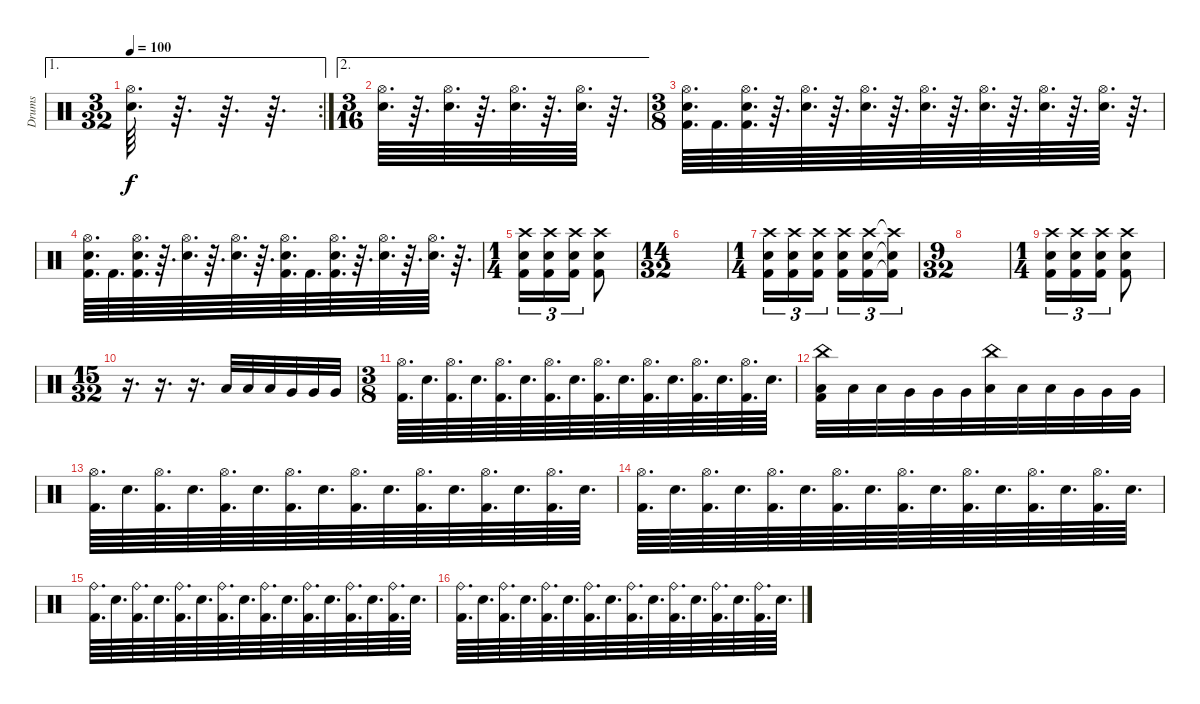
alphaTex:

\track ("Drums" "Drums") {instrument percussion}
\staff {score}
\articulation defaults
\ae 1
\rc 2
\ts (3 32)
\tempo 100
\clef neutral
\ks c
("Hi-Hat (open)" "Electric Snare (hit)").64{d dy f} r.64{d} r.64{d} r.64{d} |
\ae 2
\ts (3 16)
("Hi-Hat (open)" "Electric Snare (hit)").64{d} r.64{d} ("Hi-Hat (open)" "Electric Snare (hit)").64{d} r.64{d} ("Hi-Hat (open)" "Electric Snare (hit)").64{d} r.64{d} ("Hi-Hat (open)" "Electric Snare (hit)").64{d} r.64{d} |
\ts (3 8)
("Hi-Hat (open)" "Electric Snare (hit)" "Kick (hit) 2").64{d} "Kick (hit) 2".64{d} ("Hi-Hat (open)" "Electric Snare (hit)" "Kick (hit) 2").64{d} r.64{d} ("Hi-Hat (open)" "Electric Snare (hit)").64{d} r.64{d} ("Hi-Hat (open)" "Electric Snare (hit)").64{d} r.64{d} ("Hi-Hat (open)" "Electric Snare (hit)").64{d} r.64{d} ("Hi-Hat (open)" "Electric Snare (hit)").64{d} r.64{d} ("Hi-Hat (open)" "Electric Snare (hit)").64{d} r.64{d} ("Hi-Hat (open)" "Electric Snare (hit)").64{d} r.64{d} |
("Hi-Hat (open)" "Electric Snare (hit)" "Kick (hit) 2").64{d} "Kick (hit) 2".64{d} ("Hi-Hat (open)" "Electric Snare (hit)" "Kick (hit) 2").64{d} r.64{d} ("Hi-Hat (open)" "Electric Snare (hit)").64{d} r.64{d} ("Hi-Hat (open)" "Electric Snare (hit)").64{d} r.64{d} ("Hi-Hat (open)" "Electric Snare (hit)" "Kick (hit) 2").64{d} "Kick (hit) 2".64{d} ("Hi-Hat (open)" "Electric Snare (hit)" "Kick (hit) 2").64{d} r.64{d} ("Hi-Hat (open)" "Electric Snare (hit)").64{d} r.64{d} ("Hi-Hat (open)" "Electric Snare (hit)").64{d} r.64{d} |
\ts (1 4)
("Crash high (hit)" "Electric Snare (hit)" "Kick (hit) 2").16{tu (3 2)} ("Crash high (hit)" "Electric Snare (hit)" "Kick (hit) 2").16{tu (3 2)} ("Crash high (hit)" "Electric Snare (hit)" "Kick (hit) 2").16{tu (3 2)} ("Crash high (hit)" "Electric Snare (hit)" "Kick (hit) 2").8 |
\ts (14 32)
|
\ts (1 4)
("Crash high (hit)" "Electric Snare (hit)" "Kick (hit) 2").16{tu (3 2)} ("Crash high (hit)" "Electric Snare (hit)" "Kick (hit) 2").16{tu (3 2)} ("Crash high (hit)" "Electric Snare (hit)" "Kick (hit) 2").16{tu (3 2) beam splitsecondary} ("Crash high (hit)" "Electric Snare (hit)" "Kick (hit) 2").16{tu (3 2)} ("Crash high (hit)" "Electric Snare (hit)" "Kick (hit) 2").16{tu (3 2)} ("Crash high (hit)"{t} "Electric Snare (hit)"{t} "Kick (hit) 2"{t}).16{tu (3 2)} |
\ts (9 32)
|
\ts (1 4)
("Crash high (hit)" "Electric Snare (hit)" "Kick (hit) 2").16{tu (3 2)} ("Crash high (hit)" "Electric Snare (hit)" "Kick (hit) 2").16{tu (3 2)} ("Crash high (hit)" "Electric Snare (hit)" "Kick (hit) 2").16{tu (3 2)} ("Crash high (hit)" "Electric Snare (hit)" "Kick (hit) 2").8 |
\ts (15 32)
r.16{d} r.16{d} r.16{d} "Low Tom (hit)".32 "Low Tom (hit)".32 "Low Tom (hit)".32 "Very Low Tom (hit)".32 "Very Low Tom (hit)".32 "Very Low Tom (hit)".32 |
\ts (3 8)
("Hi-Hat (open)" "Kick (hit) 2").64{d} "Electric Snare (hit)".64{d} ("Hi-Hat (open)" "Kick (hit) 2").64{d} "Electric Snare (hit)".64{d} ("Hi-Hat (open)" "Kick (hit) 2").64{d} "Electric Snare (hit)".64{d} ("Hi-Hat (open)" "Kick (hit) 2").64{d} "Electric Snare (hit)".64{d} ("Hi-Hat (open)" "Kick (hit) 2").64{d} "Electric Snare (hit)".64{d} ("Hi-Hat (open)" "Kick (hit) 2").64{d} "Electric Snare (hit)".64{d} ("Hi-Hat (open)" "Kick (hit) 2").64{d} "Electric Snare (hit)".64{d} ("Hi-Hat (open)" "Kick (hit) 2").64{d} "Electric Snare (hit)".64{d} |
("China (hit)" "Low Tom (hit)" "Kick (hit) 2").32 "Low Tom (hit)".32 "Low Tom (hit)".32 "Very Low Tom (hit)".32 "Very Low Tom (hit)".32 "Very Low Tom (hit)".32 ("China (hit)" "Low Tom (hit)").32 "Low Tom (hit)".32 "Low Tom (hit)".32 "Very Low Tom (hit)".32 "Very Low Tom (hit)".32 "Very Low Tom (hit)".32 |
("Hi-Hat (open)" "Kick (hit) 2").64{d} "Electric Snare (hit)".64{d} ("Hi-Hat (open)" "Kick (hit) 2").64{d} "Electric Snare (hit)".64{d} ("Hi-Hat (open)" "Kick (hit) 2").64{d} "Electric Snare (hit)".64{d} ("Hi-Hat (open)" "Kick (hit) 2").64{d} "Electric Snare (hit)".64{d} ("Hi-Hat (open)" "Kick (hit) 2").64{d} "Electric Snare (hit)".64{d} ("Hi-Hat (open)" "Kick (hit) 2").64{d} "Electric Snare (hit)".64{d} ("Hi-Hat (open)" "Kick (hit) 2").64{d} "Electric Snare (hit)".64{d} ("Hi-Hat (open)" "Kick (hit) 2").64{d} "Electric Snare (hit)".64{d} |
("Hi-Hat (open)" "Kick (hit) 2").64{d} "Electric Snare (hit)".64{d} ("Hi-Hat (open)" "Kick (hit) 2").64{d} "Electric Snare (hit)".64{d} ("Hi-Hat (open)" "Kick (hit) 2").64{d} "Electric Snare (hit)".64{d} ("Hi-Hat (open)" "Kick (hit) 2").64{d} "Electric Snare (hit)".64{d} ("Hi-Hat (open)" "Kick (hit) 2").64{d} "Electric Snare (hit)".64{d} ("Hi-Hat (open)" "Kick (hit) 2").64{d} "Electric Snare (hit)".64{d} ("Hi-Hat (open)" "Kick (hit) 2").64{d} "Electric Snare (hit)".64{d} ("Hi-Hat (open)" "Kick (hit) 2").64{d} "Electric Snare (hit)".64{d} |
("Ride (bell)" "Kick (hit) 2").64{d} "Electric Snare (hit)".64{d} ("Ride (bell)" "Kick (hit) 2").64{d} "Electric Snare (hit)".64{d} ("Ride (bell)" "Kick (hit) 2").64{d} "Electric Snare (hit)".64{d} ("Ride (bell)" "Kick (hit) 2").64{d} "Electric Snare (hit)".64{d} ("Ride (bell)" "Kick (hit) 2").64{d} "Electric Snare (hit)".64{d} ("Ride (bell)" "Kick (hit) 2").64{d} "Electric Snare (hit)".64{d} ("Ride (bell)" "Kick (hit) 2").64{d} "Electric Snare (hit)".64{d} ("Ride (bell)" "Kick (hit) 2").64{d} "Electric Snare (hit)".64{d} |
("Ride (bell)" "Kick (hit) 2").64{d} "Electric Snare (hit)".64{d} ("Ride (bell)" "Kick (hit) 2").64{d} "Electric Snare (hit)".64{d} ("Ride (bell)" "Kick (hit) 2").64{d} "Electric Snare (hit)".64{d} ("Ride (bell)" "Kick (hit) 2").64{d} "Electric Snare (hit)".64{d} ("Ride (bell)" "Kick (hit) 2").64{d} "Electric Snare (hit)".64{d} ("Ride (bell)" "Kick (hit) 2").64{d} "Electric Snare (hit)".64{d} ("Ride (bell)" "Kick (hit) 2").64{d} "Electric Snare (hit)".64{d} ("Ride (bell)" "Kick (hit) 2").64{d} "Electric Snare (hit)".64{d}
